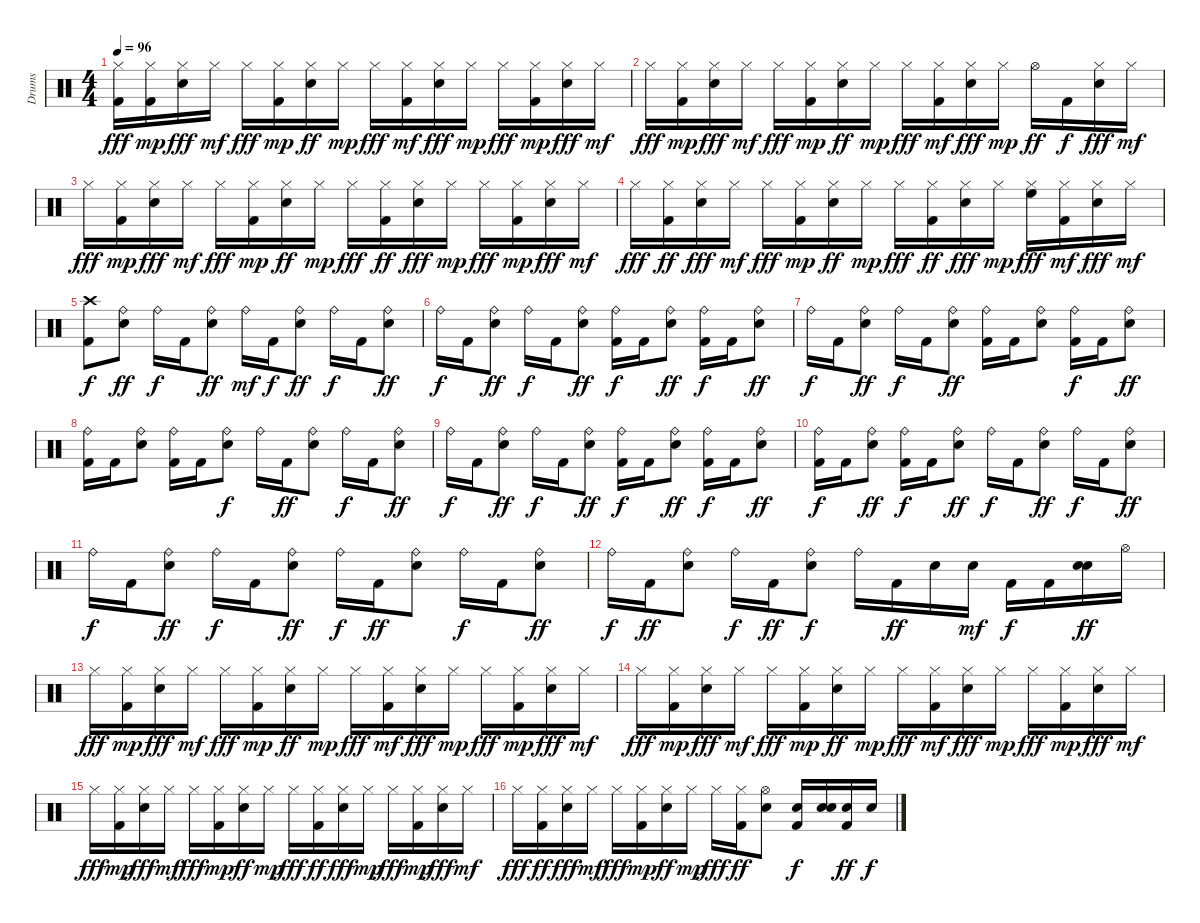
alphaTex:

\track ("Drums" "Drums") {instrument percussion}
\staff {score}
\articulation defaults
\ts (4 4)
\tempo 96
\clef neutral
\ks c
("Kick (hit) 2" "Hi-Hat (closed)").16{dy fff} ("Kick (hit) 2" "Hi-Hat (closed)").16{dy mp} ("Electric Snare (hit)" "Hi-Hat (closed)").16{dy fff} "Hi-Hat (closed)".16{dy mf} "Hi-Hat (closed)".16{dy fff} ("Kick (hit) 2" "Hi-Hat (closed)").16{dy mp} ("Electric Snare (hit)" "Hi-Hat (closed)").16{dy ff} "Hi-Hat (closed)".16{dy mp} "Hi-Hat (closed)".16{dy fff} ("Hi-Hat (closed)" "Kick (hit) 2").16{dy mf} ("Electric Snare (hit)" "Hi-Hat (closed)").16{dy fff} "Hi-Hat (closed)".16{dy mp} "Hi-Hat (closed)".16{dy fff} ("Kick (hit) 2" "Hi-Hat (closed)").16{dy mp} ("Electric Snare (hit)" "Hi-Hat (closed)").16{dy fff} "Hi-Hat (closed)".16{dy mf} |
"Hi-Hat (closed)".16{dy fff} ("Kick (hit) 2" "Hi-Hat (closed)").16{dy mp} ("Electric Snare (hit)" "Hi-Hat (closed)").16{dy fff} "Hi-Hat (closed)".16{dy mf} "Hi-Hat (closed)".16{dy fff} ("Kick (hit) 2" "Hi-Hat (closed)").16{dy mp} ("Electric Snare (hit)" "Hi-Hat (closed)").16{dy ff} "Hi-Hat (closed)".16{dy mp} "Hi-Hat (closed)".16{dy fff} ("Kick (hit) 2" "Hi-Hat (closed)").16{dy mf} ("Electric Snare (hit)" "Hi-Hat (closed)").16{dy fff} "Hi-Hat (closed)".16{dy mp} "Hi-Hat (open)".16{dy ff} "Kick (hit) 2".16{dy f} ("Electric Snare (hit)" "Hi-Hat (closed)").16{dy fff} "Hi-Hat (closed)".16{dy mf} |
"Hi-Hat (closed)".16{dy fff} ("Hi-Hat (closed)" "Kick (hit) 2").16{dy mp} ("Electric Snare (hit)" "Hi-Hat (closed)").16{dy fff} "Hi-Hat (closed)".16{dy mf} "Hi-Hat (closed)".16{dy fff} ("Kick (hit) 2" "Hi-Hat (closed)").16{dy mp} ("Electric Snare (hit)" "Hi-Hat (closed)").16{dy ff} "Hi-Hat (closed)".16{dy mp} "Hi-Hat (closed)".16{dy fff} ("Hi-Hat (closed)" "Kick (hit) 2").16{dy ff} ("Electric Snare (hit)" "Hi-Hat (closed)").16{dy fff} "Hi-Hat (closed)".16{dy mp} "Hi-Hat (closed)".16{dy fff} ("Kick (hit) 2" "Hi-Hat (closed)").16{dy mp} ("Electric Snare (hit)" "Hi-Hat (closed)").16{dy fff} "Hi-Hat (closed)".16{dy mf} |
"Hi-Hat (closed)".16{dy fff} ("Hi-Hat (closed)" "Kick (hit) 2").16{dy ff} ("Electric Snare (hit)" "Hi-Hat (closed)").16{dy fff} "Hi-Hat (closed)".16{dy mf} "Hi-Hat (closed)".16{dy fff} ("Kick (hit) 2" "Hi-Hat (closed)").16{dy mp} ("Electric Snare (hit)" "Hi-Hat (closed)").16{dy ff} "Hi-Hat (closed)".16{dy mp} "Hi-Hat (closed)".16{dy fff} ("Hi-Hat (closed)" "Kick (hit) 2").16{dy ff} ("Electric Snare (hit)" "Hi-Hat (closed)").16{dy fff} "Hi-Hat (closed)".16{dy mp} ("High Floor Tom (hit)" "Hi-Hat (closed)").16{dy fff} ("Hi-Hat (closed)" "Kick (hit) 2").16{dy mf} ("Electric Snare (hit)" "Hi-Hat (closed)").16{dy fff} "Hi-Hat (closed)".16{dy mf} |
("Kick (hit) 2" "Crash high (hit)").8{dy f} ("Electric Snare (hit)" "Ride (bell)").8{dy ff} "Ride (bell)".16{dy f} "Kick (hit) 2".16 ("Electric Snare (hit)" "Ride (bell)").8{dy ff} "Ride (bell)".16{dy mf} "Kick (hit) 2".16{dy f} ("Electric Snare (hit)" "Ride (bell)").8{dy ff} "Ride (bell)".16{dy f} "Kick (hit) 2".16 ("Electric Snare (hit)" "Ride (bell)").8{dy ff} |
"Ride (bell)".16{dy f} "Kick (hit) 2".16 ("Electric Snare (hit)" "Ride (bell)").8{dy ff} "Ride (bell)".16{dy f} "Kick (hit) 2".16 ("Electric Snare (hit)" "Ride (bell)").8{dy ff} ("Ride (bell)" "Kick (hit) 2").16{dy f} "Kick (hit) 2".16 ("Electric Snare (hit)" "Ride (bell)").8{dy ff} ("Ride (bell)" "Kick (hit) 2").16{dy f} "Kick (hit) 2".16 ("Electric Snare (hit)" "Ride (bell)").8{dy ff} |
"Ride (bell)".16{dy f} "Kick (hit) 2".16 ("Electric Snare (hit)" "Ride (bell)").8{dy ff} "Ride (bell)".16{dy f} "Kick (hit) 2".16 ("Electric Snare (hit)" "Ride (bell)").8{dy ff} ("Ride (bell)" "Kick (hit) 2").16 "Kick (hit) 2".16 ("Electric Snare (hit)" "Ride (bell)").8 ("Ride (bell)" "Kick (hit) 2").16{dy f} "Kick (hit) 2".16 ("Electric Snare (hit)" "Ride (bell)").8{dy ff} |
("Ride (bell)" "Kick (hit) 2").16 "Kick (hit) 2".16 ("Electric Snare (hit)" "Ride (bell)").8 ("Ride (bell)" "Kick (hit) 2").16 "Kick (hit) 2".16 ("Electric Snare (hit)" "Ride (bell)").8{dy f} "Ride (bell)".16 "Kick (hit) 2".16{dy ff} ("Electric Snare (hit)" "Ride (bell)").8 "Ride (bell)".16{dy f} "Kick (hit) 2".16 ("Electric Snare (hit)" "Ride (bell)").8{dy ff} |
"Ride (bell)".16{dy f} "Kick (hit) 2".16 ("Electric Snare (hit)" "Ride (bell)").8{dy ff} "Ride (bell)".16{dy f} "Kick (hit) 2".16 ("Electric Snare (hit)" "Ride (bell)").8{dy ff} ("Ride (bell)" "Kick (hit) 2").16{dy f} "Kick (hit) 2".16 ("Electric Snare (hit)" "Ride (bell)").8{dy ff} ("Ride (bell)" "Kick (hit) 2").16{dy f} "Kick (hit) 2".16 ("Electric Snare (hit)" "Ride (bell)").8{dy ff} |
("Ride (bell)" "Kick (hit) 2").16{dy f} "Kick (hit) 2".16 ("Electric Snare (hit)" "Ride (bell)").8{dy ff} ("Ride (bell)" "Kick (hit) 2").16{dy f} "Kick (hit) 2".16 ("Electric Snare (hit)" "Ride (bell)").8{dy ff} "Ride (bell)".16{dy f} "Kick (hit) 2".16 ("Electric Snare (hit)" "Ride (bell)").8{dy ff} "Ride (bell)".16{dy f} "Kick (hit) 2".16 ("Electric Snare (hit)" "Ride (bell)").8{dy ff} |
"Ride (bell)".16{dy f} "Kick (hit) 2".16 ("Electric Snare (hit)" "Ride (bell)").8{dy ff} "Ride (bell)".16{dy f} "Kick (hit) 2".16 ("Electric Snare (hit)" "Ride (bell)").8{dy ff} "Ride (bell)".16{dy f} "Kick (hit) 2".16{dy ff} ("Electric Snare (hit)" "Ride (bell)").8 "Ride (bell)".16{dy f} "Kick (hit) 2".16 ("Electric Snare (hit)" "Ride (bell)").8{dy ff} |
"Ride (bell)".16{dy f} "Kick (hit) 2".16{dy ff} ("Electric Snare (hit)" "Ride (bell)").8 "Ride (bell)".16{dy f} "Kick (hit) 2".16{dy ff} ("Electric Snare (hit)" "Ride (bell)").8{dy f} "Ride (bell)".16 "Kick (hit) 2".16{dy ff} "Electric Snare (hit)".16 "Electric Snare (hit)".16{dy mf} "Kick (hit) 2".16{dy f} "Kick (hit) 2".16 ("Electric Snare (hit)" "Electric Snare (hit)").16{dy ff} "Hi-Hat (open)".16 |
"Hi-Hat (closed)".16{dy fff} ("Kick (hit) 2" "Hi-Hat (closed)").16{dy mp} ("Electric Snare (hit)" "Hi-Hat (closed)").16{dy fff} "Hi-Hat (closed)".16{dy mf} "Hi-Hat (closed)".16{dy fff} ("Kick (hit) 2" "Hi-Hat (closed)").16{dy mp} ("Electric Snare (hit)" "Hi-Hat (closed)").16{dy ff} "Hi-Hat (closed)".16{dy mp} "Hi-Hat (closed)".16{dy fff} ("Hi-Hat (closed)" "Kick (hit) 2").16{dy mf} ("Electric Snare (hit)" "Hi-Hat (closed)").16{dy fff} "Hi-Hat (closed)".16{dy mp} "Hi-Hat (closed)".16{dy fff} ("Kick (hit) 2" "Hi-Hat (closed)").16{dy mp} ("Electric Snare (hit)" "Hi-Hat (closed)").16{dy fff} "Hi-Hat (closed)".16{dy mf} |
"Hi-Hat (closed)".16{dy fff} ("Kick (hit) 2" "Hi-Hat (closed)").16{dy mp} ("Electric Snare (hit)" "Hi-Hat (closed)").16{dy fff} "Hi-Hat (closed)".16{dy mf} "Hi-Hat (closed)".16{dy fff} ("Kick (hit) 2" "Hi-Hat (closed)").16{dy mp} ("Electric Snare (hit)" "Hi-Hat (closed)").16{dy ff} "Hi-Hat (closed)".16{dy mp} "Hi-Hat (closed)".16{dy fff} ("Kick (hit) 2" "Hi-Hat (closed)").16{dy mf} ("Electric Snare (hit)" "Hi-Hat (closed)").16{dy fff} "Hi-Hat (closed)".16{dy mp} "Hi-Hat (closed)".16{dy fff} ("Kick (hit) 2" "Hi-Hat (closed)").16{dy mp} ("Electric Snare (hit)" "Hi-Hat (closed)").16{dy fff} "Hi-Hat (closed)".16{dy mf} |
"Hi-Hat (closed)".16{dy fff} ("Hi-Hat (closed)" "Kick (hit) 2").16{dy mp} ("Electric Snare (hit)" "Hi-Hat (closed)").16{dy fff} "Hi-Hat (closed)".16{dy mf} "Hi-Hat (closed)".16{dy fff} ("Kick (hit) 2" "Hi-Hat (closed)").16{dy mp} ("Electric Snare (hit)" "Hi-Hat (closed)").16{dy ff} "Hi-Hat (closed)".16{dy mp} "Hi-Hat (closed)".16{dy fff} ("Hi-Hat (closed)" "Kick (hit) 2").16{dy ff} ("Electric Snare (hit)" "Hi-Hat (closed)").16{dy fff} "Hi-Hat (closed)".16{dy mp} "Hi-Hat (closed)".16{dy fff} ("Kick (hit) 2" "Hi-Hat (closed)").16{dy mp} ("Electric Snare (hit)" "Hi-Hat (closed)").16{dy fff} "Hi-Hat (closed)".16{dy mf} |
"Hi-Hat (closed)".16{dy fff} ("Hi-Hat (closed)" "Kick (hit) 2").16{dy ff} ("Electric Snare (hit)" "Hi-Hat (closed)").16{dy fff} "Hi-Hat (closed)".16{dy mf} "Hi-Hat (closed)".16{dy fff} ("Kick (hit) 2" "Hi-Hat (closed)").16{dy mp} ("Electric Snare (hit)" "Hi-Hat (closed)").16{dy ff} "Hi-Hat (closed)".16{dy mp} "Hi-Hat (closed)".16{dy fff} ("Hi-Hat (closed)" "Kick (hit) 2").16{dy ff} ("Electric Snare (hit)" "Hi-Hat (open)").8 ("Electric Snare (hit)" "Kick (hit) 2").16{dy f} ("Electric Snare (hit)" "Electric Snare (hit)").16 ("Electric Snare (hit)" "Kick (hit) 2").16{dy ff} "Electric Snare (hit)".16{dy f}
